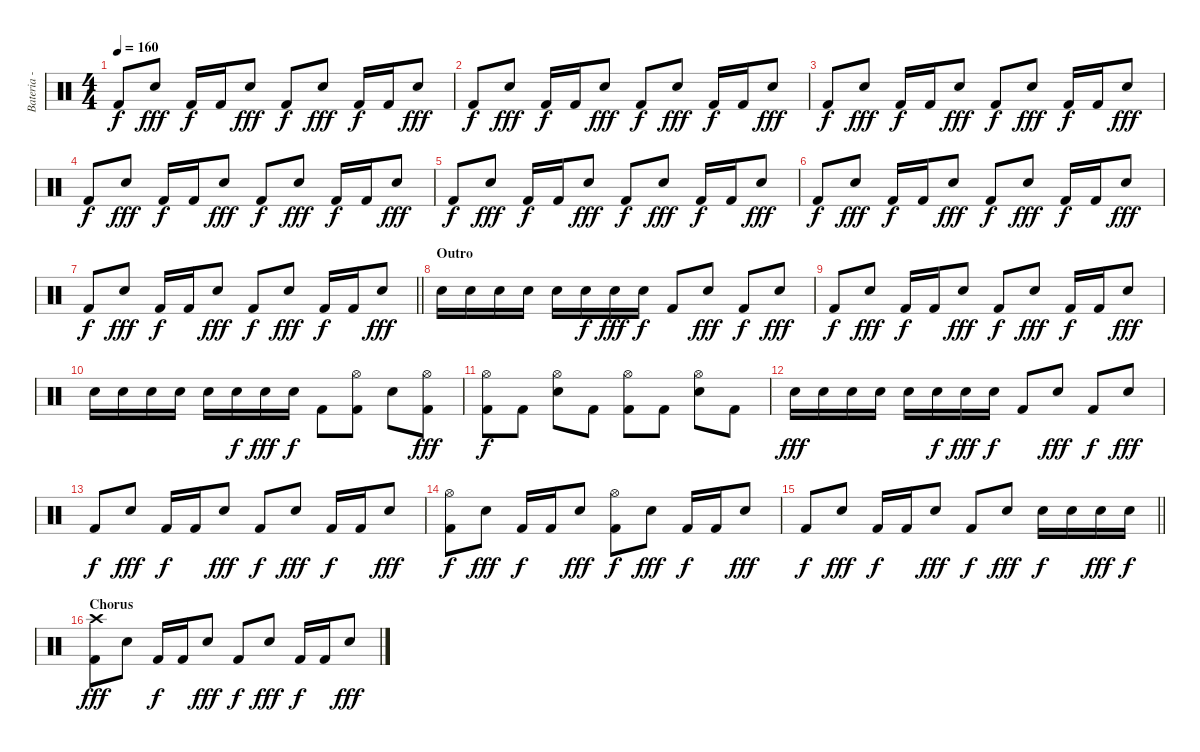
\track ("Bateria - Larzon" "Bateria - ") {instrument percussion}
\staff {score}
\articulation defaults
\ts (4 4)
\tempo 160
\clef neutral
\ks c "Kick (hit) 2".8{dy f} "Snare (hit) 2".8{dy fff} "Kick (hit) 2".16{dy f} "Kick (hit) 2".16 "Snare (hit) 2".8{dy fff} "Kick (hit) 2".8{dy f} "Snare (hit) 2".8{dy fff} "Kick (hit) 2".16{dy f} "Kick (hit) 2".16 "Snare (hit) 2".8{dy fff}
|
"Kick (hit) 2".8{dy f} "Snare (hit) 2".8{dy fff} "Kick (hit) 2".16{dy f} "Kick (hit) 2".16 "Snare (hit) 2".8{dy fff} "Kick (hit) 2".8{dy f} "Snare (hit) 2".8{dy fff} "Kick (hit) 2".16{dy f} "Kick (hit) 2".16 "Snare (hit) 2".8{dy fff} |
"Kick (hit) 2".8{dy f} "Snare (hit) 2".8{dy fff} "Kick (hit) 2".16{dy f} "Kick (hit) 2".16 "Snare (hit) 2".8{dy fff} "Kick (hit) 2".8{dy f} "Snare (hit) 2".8{dy fff} "Kick (hit) 2".16{dy f} "Kick (hit) 2".16 "Snare (hit) 2".8{dy fff} |
"Kick (hit) 2".8{dy f} "Snare (hit) 2".8{dy fff} "Kick (hit) 2".16{dy f} "Kick (hit) 2".16 "Snare (hit) 2".8{dy fff} "Kick (hit) 2".8{dy f} "Snare (hit) 2".8{dy fff} "Kick (hit) 2".16{dy f} "Kick (hit) 2".16 "Snare (hit) 2".8{dy fff} |
"Kick (hit) 2".8{dy f} "Snare (hit) 2".8{dy fff} "Kick (hit) 2".16{dy f} "Kick (hit) 2".16 "Snare (hit) 2".8{dy fff} "Kick (hit) 2".8{dy f} "Snare (hit) 2".8{dy fff} "Kick (hit) 2".16{dy f} "Kick (hit) 2".16 "Snare (hit) 2".8{dy fff} |
"Kick (hit) 2".8{dy f} "Snare (hit) 2".8{dy fff} "Kick (hit) 2".16{dy f} "Kick (hit) 2".16 "Snare (hit) 2".8{dy fff} "Kick (hit) 2".8{dy f} "Snare (hit) 2".8{dy fff} "Kick (hit) 2".16{dy f} "Kick (hit) 2".16 "Snare (hit) 2".8{dy fff} |
\barLineRight lightlight "Kick (hit) 2".8{dy f} "Snare (hit) 2".8{dy fff} "Kick (hit) 2".16{dy f} "Kick (hit) 2".16 "Snare (hit) 2".8{dy fff} "Kick (hit) 2".8{dy f} "Snare (hit) 2".8{dy fff} "Kick (hit) 2".16{dy f} "Kick (hit) 2".16 "Snare (hit) 2".8{dy fff}
|
\section ("" "Outro")
"Snare (hit) 2".16 "Snare (hit) 2".16 "Snare (hit) 2".16 "Snare (hit) 2".16 "Snare (hit) 2".16 "Snare (hit) 2".16{dy f} "Snare (hit) 2".16{dy fff} "Snare (hit) 2".16{dy f} "Kick (hit) 2".8 "Snare (hit) 2".8{dy fff} "Kick (hit) 2".8{dy f} "Snare (hit) 2".8{dy fff} |
"Kick (hit) 2".8{dy f} "Snare (hit) 2".8{dy fff} "Kick (hit) 2".16{dy f} "Kick (hit) 2".16 "Snare (hit) 2".8{dy fff} "Kick (hit) 2".8{dy f} "Snare (hit) 2".8{dy fff} "Kick (hit) 2".16{dy f} "Kick (hit) 2".16 "Snare (hit) 2".8{dy fff} |
"Snare (hit) 2".16 "Snare (hit) 2".16 "Snare (hit) 2".16 "Snare (hit) 2".16 "Snare (hit) 2".16 "Snare (hit) 2".16{dy f} "Snare (hit) 2".16{dy fff} "Snare (hit) 2".16{dy f} "Kick (hit) 2".8 ("Kick (hit) 2" "Hi-Hat (open)").8 "Snare (hit) 2".8 ("Kick (hit) 2" "Hi-Hat (open)").8{dy fff} |
("Kick (hit) 2" "Hi-Hat (open)").8{dy f} "Kick (hit) 2".8 ("Snare (hit) 2" "Hi-Hat (open)").8 "Kick (hit) 2".8 ("Kick (hit) 2" "Hi-Hat (open)").8 "Kick (hit) 2".8 ("Snare (hit) 2" "Hi-Hat (open)").8 "Kick (hit) 2".8 |
"Snare (hit) 2".16{dy fff} "Snare (hit) 2".16 "Snare (hit) 2".16 "Snare (hit) 2".16 "Snare (hit) 2".16 "Snare (hit) 2".16{dy f} "Snare (hit) 2".16{dy fff} "Snare (hit) 2".16{dy f} "Kick (hit) 2".8 "Snare (hit) 2".8{dy fff} "Kick (hit) 2".8{dy f} "Snare (hit) 2".8{dy fff} |
"Kick (hit) 2".8{dy f} "Snare (hit) 2".8{dy fff} "Kick (hit) 2".16{dy f} "Kick (hit) 2".16 "Snare (hit) 2".8{dy fff} "Kick (hit) 2".8{dy f} "Snare (hit) 2".8{dy fff} "Kick (hit) 2".16{dy f} "Kick (hit) 2".16 "Snare (hit) 2".8{dy fff} |
("Kick (hit) 2" "Hi-Hat (open)").8{dy f} "Snare (hit) 2".8{dy fff} "Kick (hit) 2".16{dy f} "Kick (hit) 2".16 "Snare (hit) 2".8{dy fff} ("Kick (hit) 2" "Hi-Hat (open)").8{dy f} "Snare (hit) 2".8{dy fff} "Kick (hit) 2".16{dy f} "Kick (hit) 2".16 "Snare (hit) 2".8{dy fff} |
\barLineRight lightlight "Kick (hit) 2".8{dy f} "Snare (hit) 2".8{dy fff} "Kick (hit) 2".16{dy f} "Kick (hit) 2".16 "Snare (hit) 2".8{dy fff} "Kick (hit) 2".8{dy f} "Snare (hit) 2".8{dy fff} "Snare (hit) 2".16{dy f} "Snare (hit) 2".16 "Snare (hit) 2".16{dy fff} "Snare (hit) 2".16{dy f}
|
\section ("" "Chorus")
("Kick (hit) 2" "Crash high (hit)").8{dy fff} "Snare (hit) 2".8 "Kick (hit) 2".16{dy f} "Kick (hit) 2".16 "Snare (hit) 2".8{dy fff} "Kick (hit) 2".8{dy f} "Snare (hit) 2".8{dy fff} "Kick (hit) 2".16{dy f} "Kick (hit) 2".16 "Snare (hit) 2".8{dy fff}
